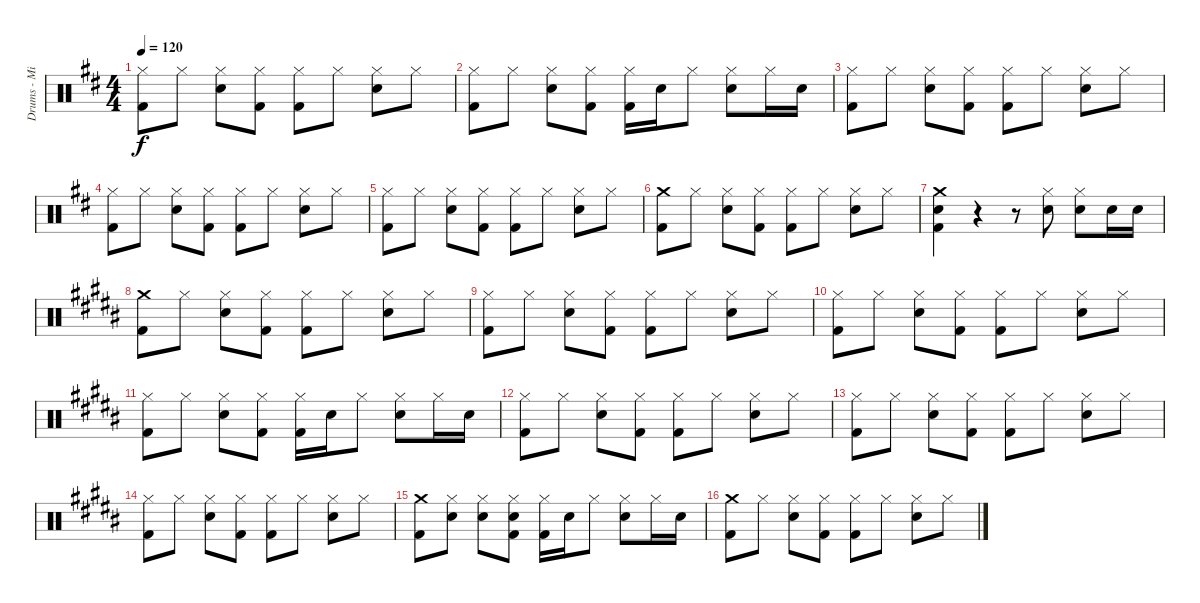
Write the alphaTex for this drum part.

\track ("Drums - Minh-Thu" "Drums - Mi") {instrument percussion}
\staff {score}
\articulation defaults
\ts (4 4)
\tempo 120
\clef neutral
\ks d
("Hi-Hat (closed)" "Kick (hit) 2").8{dy f} "Hi-Hat (closed)".8 ("Hi-Hat (closed)" "Electric Snare (hit)").8 ("Hi-Hat (closed)" "Kick (hit) 2").8 ("Hi-Hat (closed)" "Kick (hit) 2").8 "Hi-Hat (closed)".8 ("Hi-Hat (closed)" "Electric Snare (hit)").8 "Hi-Hat (closed)".8 |
("Hi-Hat (closed)" "Kick (hit) 2").8 "Hi-Hat (closed)".8 ("Hi-Hat (closed)" "Electric Snare (hit)").8 ("Hi-Hat (closed)" "Kick (hit) 2").8 ("Hi-Hat (closed)" "Kick (hit) 2").16 "Electric Snare (hit)".16 "Hi-Hat (closed)".8 ("Hi-Hat (closed)" "Electric Snare (hit)").8 "Hi-Hat (closed)".16 "Electric Snare (hit)".16 |
("Hi-Hat (closed)" "Kick (hit) 2").8 "Hi-Hat (closed)".8 ("Hi-Hat (closed)" "Electric Snare (hit)").8 ("Hi-Hat (closed)" "Kick (hit) 2").8 ("Hi-Hat (closed)" "Kick (hit) 2").8 "Hi-Hat (closed)".8 ("Hi-Hat (closed)" "Electric Snare (hit)").8 "Hi-Hat (closed)".8 |
("Hi-Hat (closed)" "Kick (hit) 2").8 "Hi-Hat (closed)".8 ("Hi-Hat (closed)" "Electric Snare (hit)").8 ("Hi-Hat (closed)" "Kick (hit) 2").8 ("Hi-Hat (closed)" "Kick (hit) 2").8 "Hi-Hat (closed)".8 ("Hi-Hat (closed)" "Electric Snare (hit)").8 "Hi-Hat (closed)".8 |
("Hi-Hat (closed)" "Kick (hit) 2").8 "Hi-Hat (closed)".8 ("Hi-Hat (closed)" "Electric Snare (hit)").8 ("Hi-Hat (closed)" "Kick (hit) 2").8 ("Hi-Hat (closed)" "Kick (hit) 2").8 "Hi-Hat (closed)".8 ("Hi-Hat (closed)" "Electric Snare (hit)").8 "Hi-Hat (closed)".8 |
("Crash medium (hit)" "Kick (hit) 2").8 "Hi-Hat (closed)".8 ("Hi-Hat (closed)" "Electric Snare (hit)").8 ("Hi-Hat (closed)" "Kick (hit) 2").8 ("Hi-Hat (closed)" "Kick (hit) 2").8 "Hi-Hat (closed)".8 ("Hi-Hat (closed)" "Electric Snare (hit)").8 "Hi-Hat (closed)".8 |
("Crash medium (hit)" "Electric Snare (hit)" "Kick (hit) 2").4 r.4 r.8 ("Hi-Hat (closed)" "Electric Snare (hit)").8 ("Hi-Hat (closed)" "Electric Snare (hit)").8 "Electric Snare (hit)".16 "Electric Snare (hit)".16 |
\ks b
("Crash medium (hit)" "Kick (hit) 2").8 "Hi-Hat (closed)".8 ("Hi-Hat (closed)" "Electric Snare (hit)").8 ("Hi-Hat (closed)" "Kick (hit) 2").8 ("Hi-Hat (closed)" "Kick (hit) 2").8 "Hi-Hat (closed)".8 ("Hi-Hat (closed)" "Electric Snare (hit)").8 "Hi-Hat (closed)".8 |
("Hi-Hat (closed)" "Kick (hit) 2").8 "Hi-Hat (closed)".8 ("Hi-Hat (closed)" "Electric Snare (hit)").8 ("Hi-Hat (closed)" "Kick (hit) 2").8 ("Hi-Hat (closed)" "Kick (hit) 2").8 "Hi-Hat (closed)".8 ("Hi-Hat (closed)" "Electric Snare (hit)").8 "Hi-Hat (closed)".8 |
("Hi-Hat (closed)" "Kick (hit) 2").8 "Hi-Hat (closed)".8 ("Hi-Hat (closed)" "Electric Snare (hit)").8 ("Hi-Hat (closed)" "Kick (hit) 2").8 ("Hi-Hat (closed)" "Kick (hit) 2").8 "Hi-Hat (closed)".8 ("Hi-Hat (closed)" "Electric Snare (hit)").8 "Hi-Hat (closed)".8 |
("Hi-Hat (closed)" "Kick (hit) 2").8 "Hi-Hat (closed)".8 ("Hi-Hat (closed)" "Electric Snare (hit)").8 ("Hi-Hat (closed)" "Kick (hit) 2").8 ("Hi-Hat (closed)" "Kick (hit) 2").16 "Electric Snare (hit)".16 "Hi-Hat (closed)".8 ("Hi-Hat (closed)" "Electric Snare (hit)").8 "Hi-Hat (closed)".16 "Electric Snare (hit)".16 |
("Hi-Hat (closed)" "Kick (hit) 2").8 "Hi-Hat (closed)".8 ("Hi-Hat (closed)" "Electric Snare (hit)").8 ("Hi-Hat (closed)" "Kick (hit) 2").8 ("Hi-Hat (closed)" "Kick (hit) 2").8 "Hi-Hat (closed)".8 ("Hi-Hat (closed)" "Electric Snare (hit)").8 "Hi-Hat (closed)".8 |
("Hi-Hat (closed)" "Kick (hit) 2").8 "Hi-Hat (closed)".8 ("Hi-Hat (closed)" "Electric Snare (hit)").8 ("Hi-Hat (closed)" "Kick (hit) 2").8 ("Hi-Hat (closed)" "Kick (hit) 2").8 "Hi-Hat (closed)".8 ("Hi-Hat (closed)" "Electric Snare (hit)").8 "Hi-Hat (closed)".8 |
("Hi-Hat (closed)" "Kick (hit) 2").8 "Hi-Hat (closed)".8 ("Hi-Hat (closed)" "Electric Snare (hit)").8 ("Hi-Hat (closed)" "Kick (hit) 2").8 ("Hi-Hat (closed)" "Kick (hit) 2").8 "Hi-Hat (closed)".8 ("Hi-Hat (closed)" "Electric Snare (hit)").8 "Hi-Hat (closed)".8 |
("Crash medium (hit)" "Kick (hit) 2").8 ("Hi-Hat (closed)" "Electric Snare (hit)").8 ("Hi-Hat (closed)" "Electric Snare (hit)").8 ("Hi-Hat (closed)" "Electric Snare (hit)" "Kick (hit) 2").8 ("Hi-Hat (closed)" "Kick (hit) 2").16 "Electric Snare (hit)".16 "Hi-Hat (closed)".8 ("Hi-Hat (closed)" "Electric Snare (hit)").8 "Hi-Hat (closed)".16 "Electric Snare (hit)".16 |
("Crash medium (hit)" "Kick (hit) 2").8 "Hi-Hat (closed)".8 ("Hi-Hat (closed)" "Electric Snare (hit)").8 ("Hi-Hat (closed)" "Kick (hit) 2").8 ("Hi-Hat (closed)" "Kick (hit) 2").8 "Hi-Hat (closed)".8 ("Hi-Hat (closed)" "Electric Snare (hit)").8 "Hi-Hat (closed)".8
